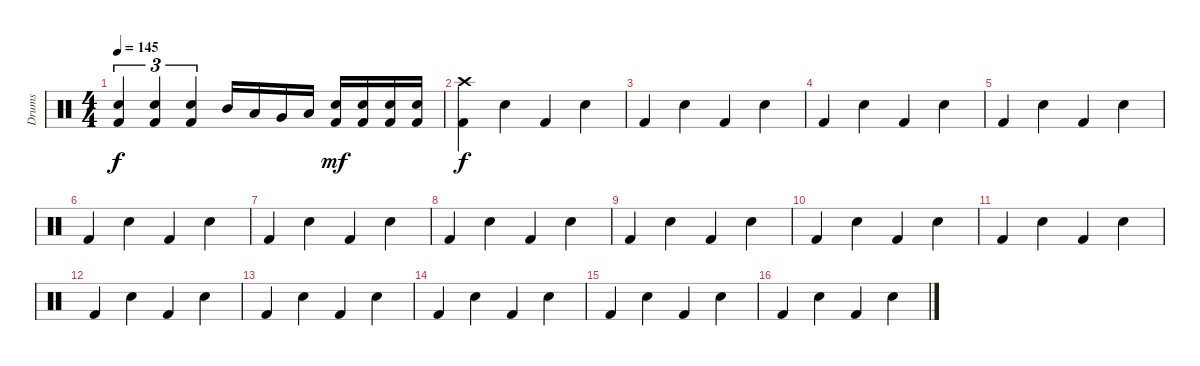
\track ("Drums" "Drums") {instrument percussion}
\staff {score}
\articulation defaults
\ts (4 4)
\tempo 145
\clef neutral
\ks c
("Snare (hit) 2" "Kick (hit) 2").4{tu (3 2) dy f} ("Snare (hit) 2" "Kick (hit) 2").4{tu (3 2)} ("Snare (hit) 2" "Kick (hit) 2").4{tu (3 2)} "Mid Tom (hit)".16 "Low Tom (hit)".16 "Very Low Tom (hit)".16 "Low Floor Tom (hit)".16 ("Snare (hit) 2" "Kick (hit) 2").16{dy mf} ("Snare (hit) 2" "Kick (hit) 2").16 ("Snare (hit) 2" "Kick (hit) 2").16 ("Snare (hit) 2" "Kick (hit) 2").16 |
("Crash high (hit)" "Kick (hit) 2").4{dy f} "Snare (hit) 2".4 "Kick (hit) 2".4 "Snare (hit) 2".4 |
"Kick (hit) 2".4 "Snare (hit) 2".4 "Kick (hit) 2".4 "Snare (hit) 2".4 |
"Kick (hit) 2".4 "Snare (hit) 2".4 "Kick (hit) 2".4 "Snare (hit) 2".4 |
"Kick (hit) 2".4 "Snare (hit) 2".4 "Kick (hit) 2".4 "Snare (hit) 2".4 |
"Kick (hit) 2".4 "Snare (hit) 2".4 "Kick (hit) 2".4 "Snare (hit) 2".4 |
"Kick (hit) 2".4 "Snare (hit) 2".4 "Kick (hit) 2".4 "Snare (hit) 2".4 |
"Kick (hit) 2".4 "Snare (hit) 2".4 "Kick (hit) 2".4 "Snare (hit) 2".4 |
"Kick (hit) 2".4 "Snare (hit) 2".4 "Kick (hit) 2".4 "Snare (hit) 2".4 |
"Kick (hit) 2".4 "Snare (hit) 2".4 "Kick (hit) 2".4 "Snare (hit) 2".4 |
"Kick (hit) 2".4 "Snare (hit) 2".4 "Kick (hit) 2".4 "Snare (hit) 2".4 |
"Kick (hit) 2".4 "Snare (hit) 2".4 "Kick (hit) 2".4 "Snare (hit) 2".4 |
"Kick (hit) 2".4 "Snare (hit) 2".4 "Kick (hit) 2".4 "Snare (hit) 2".4 |
"Kick (hit) 2".4 "Snare (hit) 2".4 "Kick (hit) 2".4 "Snare (hit) 2".4 |
"Kick (hit) 2".4 "Snare (hit) 2".4 "Kick (hit) 2".4 "Snare (hit) 2".4 |
"Kick (hit) 2".4 "Snare (hit) 2".4 "Kick (hit) 2".4 "Snare (hit) 2".4
